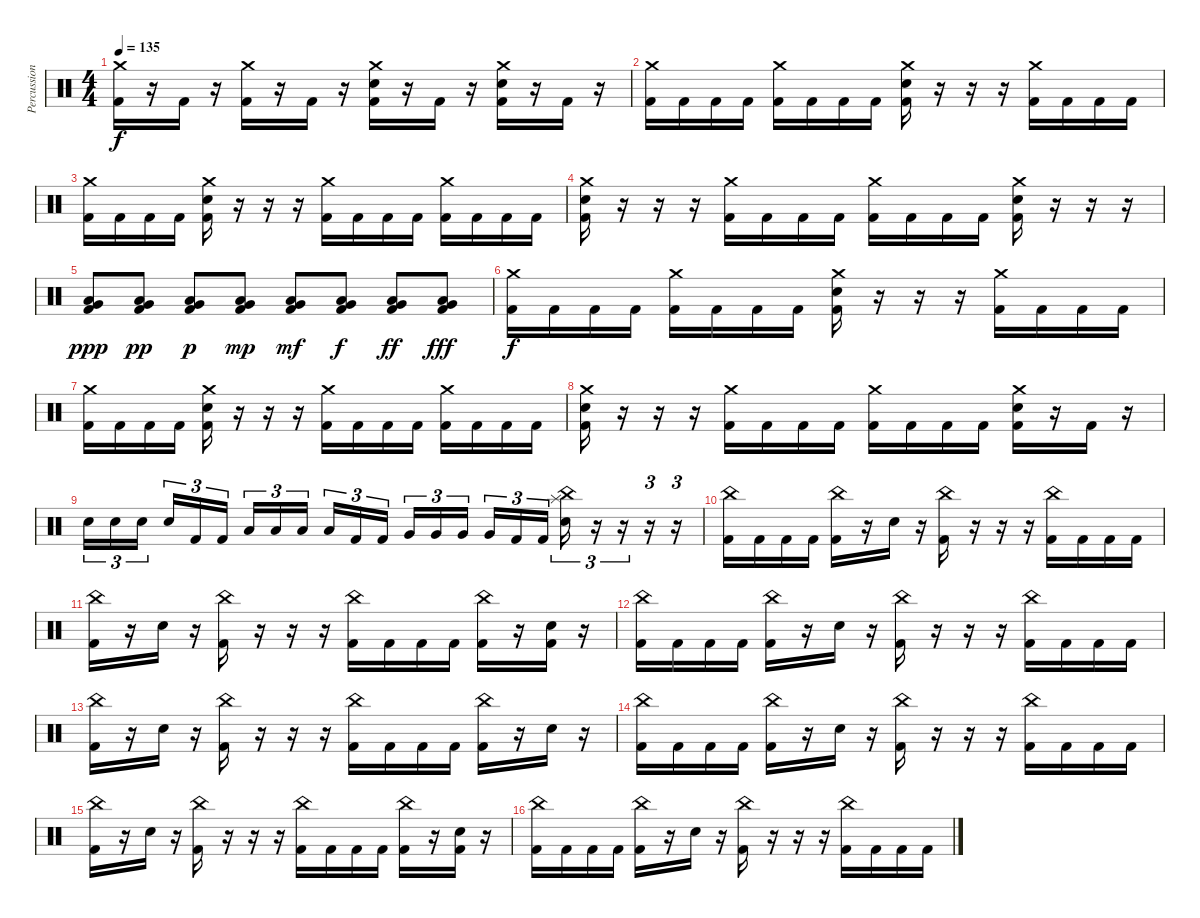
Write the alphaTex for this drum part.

\track ("Percussion" "Percussion") {instrument percussion}
\staff {score}
\articulation defaults
\ts (4 4)
\tempo 135
\clef neutral
\ks c
("Crash medium (hit)" "Kick (hit) 2").16{dy f} r.16 "Kick (hit) 2".16 r.16 ("Crash medium (hit)" "Kick (hit) 2").16 r.16 "Kick (hit) 2".16 r.16 ("Crash medium (hit)" "Snare (hit) 2" "Kick (hit) 2").16 r.16 "Kick (hit) 2".16 r.16 ("Crash medium (hit)" "Snare (hit) 2" "Kick (hit) 2").16 r.16 "Kick (hit) 2".16 r.16 |
("Crash medium (hit)" "Kick (hit) 2").16 "Kick (hit) 2".16 "Kick (hit) 2".16 "Kick (hit) 2".16 ("Crash medium (hit)" "Kick (hit) 2").16 "Kick (hit) 2".16 "Kick (hit) 2".16 "Kick (hit) 2".16 ("Crash medium (hit)" "Snare (hit) 2" "Kick (hit) 2").16 r.16 r.16 r.16 ("Crash medium (hit)" "Kick (hit) 2").16 "Kick (hit) 2".16 "Kick (hit) 2".16 "Kick (hit) 2".16 |
("Crash medium (hit)" "Kick (hit) 2").16 "Kick (hit) 2".16 "Kick (hit) 2".16 "Kick (hit) 2".16 ("Crash medium (hit)" "Snare (hit) 2" "Kick (hit) 2").16 r.16 r.16 r.16 ("Crash medium (hit)" "Kick (hit) 2").16 "Kick (hit) 2".16 "Kick (hit) 2".16 "Kick (hit) 2".16 ("Crash medium (hit)" "Kick (hit) 2").16 "Kick (hit) 2".16 "Kick (hit) 2".16 "Kick (hit) 2".16 |
("Crash medium (hit)" "Snare (hit) 2" "Kick (hit) 2").16 r.16 r.16 r.16 ("Crash medium (hit)" "Kick (hit) 2").16 "Kick (hit) 2".16 "Kick (hit) 2".16 "Kick (hit) 2".16 ("Crash medium (hit)" "Kick (hit) 2").16 "Kick (hit) 2".16 "Kick (hit) 2".16 "Kick (hit) 2".16 ("Crash medium (hit)" "Snare (hit) 2" "Kick (hit) 2").16 r.16 r.16 r.16 |
("Very Low Tom (hit)" "Low Floor Tom (hit)" "Kick (hit) 2").8{dy ppp} ("Very Low Tom (hit)" "Low Floor Tom (hit)" "Kick (hit) 2").8{dy pp} ("Very Low Tom (hit)" "Low Floor Tom (hit)" "Kick (hit) 2").8{dy p} ("Very Low Tom (hit)" "Low Floor Tom (hit)" "Kick (hit) 2").8{dy mp} ("Very Low Tom (hit)" "Low Floor Tom (hit)" "Kick (hit) 2").8{dy mf} ("Very Low Tom (hit)" "Low Floor Tom (hit)" "Kick (hit) 2").8{dy f} ("Very Low Tom (hit)" "Low Floor Tom (hit)" "Kick (hit) 2").8{dy ff} ("Very Low Tom (hit)" "Low Floor Tom (hit)" "Kick (hit) 2").8{dy fff} |
("Crash medium (hit)" "Kick (hit) 2").16{dy f} "Kick (hit) 2".16 "Kick (hit) 2".16 "Kick (hit) 2".16 ("Crash medium (hit)" "Kick (hit) 2").16 "Kick (hit) 2".16 "Kick (hit) 2".16 "Kick (hit) 2".16 ("Crash medium (hit)" "Snare (hit) 2" "Kick (hit) 2").16 r.16 r.16 r.16 ("Crash medium (hit)" "Kick (hit) 2").16 "Kick (hit) 2".16 "Kick (hit) 2".16 "Kick (hit) 2".16 |
("Crash medium (hit)" "Kick (hit) 2").16 "Kick (hit) 2".16 "Kick (hit) 2".16 "Kick (hit) 2".16 ("Crash medium (hit)" "Snare (hit) 2" "Kick (hit) 2").16 r.16 r.16 r.16 ("Crash medium (hit)" "Kick (hit) 2").16 "Kick (hit) 2".16 "Kick (hit) 2".16 "Kick (hit) 2".16 ("Crash medium (hit)" "Kick (hit) 2").16 "Kick (hit) 2".16 "Kick (hit) 2".16 "Kick (hit) 2".16 |
("Crash medium (hit)" "Snare (hit) 2" "Kick (hit) 2").16 r.16 r.16 r.16 ("Crash medium (hit)" "Kick (hit) 2").16 "Kick (hit) 2".16 "Kick (hit) 2".16 "Kick (hit) 2".16 ("Crash medium (hit)" "Kick (hit) 2").16 "Kick (hit) 2".16 "Kick (hit) 2".16 "Kick (hit) 2".16 ("Crash medium (hit)" "Snare (hit) 2" "Kick (hit) 2").16 r.16 "Kick (hit) 2".16 r.16 |
"Snare (hit) 2".16{tu (3 2)} "Snare (hit) 2".16{tu (3 2)} "Snare (hit) 2".16{tu (3 2) beam splitsecondary} "Snare (hit) 2".16{tu (3 2)} "Kick (hit) 2".16{tu (3 2)} "Kick (hit) 2".16{tu (3 2)} "Low Tom (hit)".16{tu (3 2)} "Low Tom (hit)".16{tu (3 2)} "Low Tom (hit)".16{tu (3 2) beam splitsecondary} "Low Tom (hit)".16{tu (3 2)} "Kick (hit) 2".16{tu (3 2)} "Kick (hit) 2".16{tu (3 2)} "Very Low Tom (hit)".16{tu (3 2)} "Very Low Tom (hit)".16{tu (3 2)} "Very Low Tom (hit)".16{tu (3 2) beam splitsecondary} "Very Low Tom (hit)".16{tu (3 2)} "Kick (hit) 2".16{tu (3 2)} "Kick (hit) 2".16{tu (3 2)} ("China (hit)" "Splash (hit)" "Snare (hit) 2").16{tu (3 2)} r.16{tu (3 2)} r.16{tu (3 2)} r.16{tu (3 2)} r.16{tu (3 2)} |
("China (hit)" "Kick (hit) 2").16 "Kick (hit) 2".16 "Kick (hit) 2".16 "Kick (hit) 2".16 ("China (hit)" "Kick (hit) 2").16 r.16 "Snare (hit) 2".16 r.16 ("China (hit)" "Kick (hit) 2").16 r.16 r.16 r.16 ("China (hit)" "Kick (hit) 2").16 "Kick (hit) 2".16 "Kick (hit) 2".16 "Kick (hit) 2".16 |
("China (hit)" "Kick (hit) 2").16 r.16 "Snare (hit) 2".16 r.16 ("China (hit)" "Kick (hit) 2").16 r.16 r.16 r.16 ("China (hit)" "Kick (hit) 2").16 "Kick (hit) 2".16 "Kick (hit) 2".16 "Kick (hit) 2".16 ("China (hit)" "Kick (hit) 2").16 r.16 ("Snare (hit) 2" "Kick (hit) 2").16 r.16 |
("China (hit)" "Kick (hit) 2").16 "Kick (hit) 2".16 "Kick (hit) 2".16 "Kick (hit) 2".16 ("China (hit)" "Kick (hit) 2").16 r.16 "Snare (hit) 2".16 r.16 ("China (hit)" "Kick (hit) 2").16 r.16 r.16 r.16 ("China (hit)" "Kick (hit) 2").16 "Kick (hit) 2".16 "Kick (hit) 2".16 "Kick (hit) 2".16 |
("China (hit)" "Kick (hit) 2").16 r.16 "Snare (hit) 2".16 r.16 ("China (hit)" "Kick (hit) 2").16 r.16 r.16 r.16 ("China (hit)" "Kick (hit) 2").16 "Kick (hit) 2".16 "Kick (hit) 2".16 "Kick (hit) 2".16 ("China (hit)" "Kick (hit) 2").16 r.16 "Snare (hit) 2".16 r.16 |
("China (hit)" "Kick (hit) 2").16 "Kick (hit) 2".16 "Kick (hit) 2".16 "Kick (hit) 2".16 ("China (hit)" "Kick (hit) 2").16 r.16 "Snare (hit) 2".16 r.16 ("China (hit)" "Kick (hit) 2").16 r.16 r.16 r.16 ("China (hit)" "Kick (hit) 2").16 "Kick (hit) 2".16 "Kick (hit) 2".16 "Kick (hit) 2".16 |
("China (hit)" "Kick (hit) 2").16 r.16 "Snare (hit) 2".16 r.16 ("China (hit)" "Kick (hit) 2").16 r.16 r.16 r.16 ("China (hit)" "Kick (hit) 2").16 "Kick (hit) 2".16 "Kick (hit) 2".16 "Kick (hit) 2".16 ("China (hit)" "Kick (hit) 2").16 r.16 ("Snare (hit) 2" "Kick (hit) 2").16 r.16 |
("China (hit)" "Kick (hit) 2").16 "Kick (hit) 2".16 "Kick (hit) 2".16 "Kick (hit) 2".16 ("China (hit)" "Kick (hit) 2").16 r.16 "Snare (hit) 2".16 r.16 ("China (hit)" "Kick (hit) 2").16 r.16 r.16 r.16 ("China (hit)" "Kick (hit) 2").16 "Kick (hit) 2".16 "Kick (hit) 2".16 "Kick (hit) 2".16
